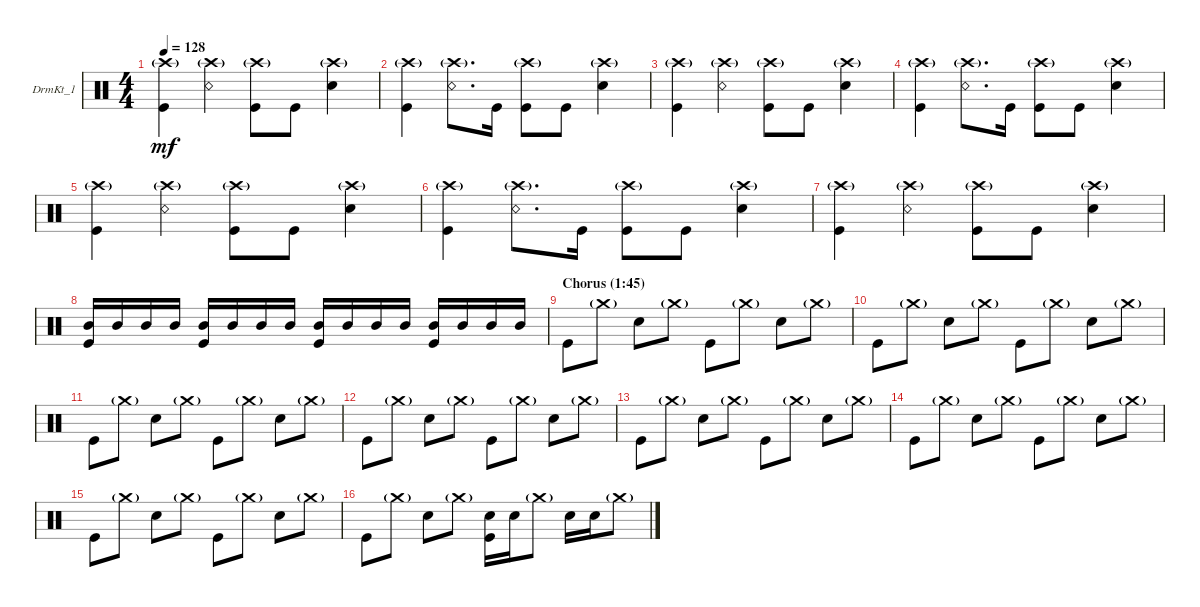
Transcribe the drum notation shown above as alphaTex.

\defaultSystemsLayout 4
\bracketExtendMode groupsimilarinstruments
\firstSystemTrackNameOrientation horizontal
\otherSystemsTrackNameOrientation horizontal
\track ("DrmKt_1" "DrmKt_1") {instrument percussion}
\staff {score}
\articulation defaults
\ts (4 4)
\tempo 128
\clef neutral
\ks c
("Kick (hit)" "Crash high (hit)"{g}).4{dy mf} ("Snare (rim shot)" "Crash high (hit)"{g}).4 ("Kick (hit)" "Crash high (hit)"{g}).8 "Kick (hit)".8 ("Snare (hit) 2" "Crash high (hit)"{g}).4 |
("Kick (hit)" "Crash high (hit)"{g}).4 ("Snare (rim shot)" "Crash high (hit)"{g}).8{d} "Kick (hit)".16 ("Kick (hit)" "Crash high (hit)"{g}).8 "Kick (hit)".8 ("Snare (hit) 2" "Crash high (hit)"{g}).4 |
("Kick (hit)" "Crash high (hit)"{g}).4 ("Snare (rim shot)" "Crash high (hit)"{g}).4 ("Kick (hit)" "Crash high (hit)"{g}).8 "Kick (hit)".8 ("Snare (hit) 2" "Crash high (hit)"{g}).4 |
("Kick (hit)" "Crash high (hit)"{g}).4 ("Snare (rim shot)" "Crash high (hit)"{g}).8{d} "Kick (hit)".16 ("Kick (hit)" "Crash high (hit)"{g}).8 "Kick (hit)".8 ("Snare (hit) 2" "Crash high (hit)"{g}).4 |
("Kick (hit)" "Crash high (hit)"{g}).4 ("Snare (rim shot)" "Crash high (hit)"{g}).4 ("Kick (hit)" "Crash high (hit)"{g}).8 "Kick (hit)".8 ("Snare (hit) 2" "Crash high (hit)"{g}).4 |
("Kick (hit)" "Crash high (hit)"{g}).4 ("Snare (rim shot)" "Crash high (hit)"{g}).8{d} "Kick (hit)".16 ("Kick (hit)" "Crash high (hit)"{g}).8 "Kick (hit)".8 ("Snare (hit) 2" "Crash high (hit)"{g}).4 |
("Kick (hit)" "Crash high (hit)"{g}).4 ("Snare (rim shot)" "Crash high (hit)"{g}).4 ("Kick (hit)" "Crash high (hit)"{g}).8 "Kick (hit)".8 ("Snare (hit) 2" "Crash high (hit)"{g}).4 |
("Mid Tom (hit)" "Kick (hit)").16 "Mid Tom (hit)".16 "Mid Tom (hit)".16 "Mid Tom (hit)".16 ("Mid Tom (hit)" "Kick (hit)").16 "Mid Tom (hit)".16 "Mid Tom (hit)".16 "Mid Tom (hit)".16 ("Mid Tom (hit)" "Kick (hit)").16 "Mid Tom (hit)".16 "Mid Tom (hit)".16 "Mid Tom (hit)".16 ("Mid Tom (hit)" "Kick (hit)").16 "Mid Tom (hit)".16 "Mid Tom (hit)".16 "Mid Tom (hit)".16 |
\section ("" "Chorus (1:45)")
"Kick (hit)".8 "Crash medium (hit)"{g}.8 "Snare (hit) 2".8 "Crash medium (hit)"{g}.8 "Kick (hit)".8 "Crash medium (hit)"{g}.8 "Snare (hit) 2".8 "Crash medium (hit)"{g}.8 |
"Kick (hit)".8 "Crash medium (hit)"{g}.8 "Snare (hit) 2".8 "Crash medium (hit)"{g}.8 "Kick (hit)".8 "Crash medium (hit)"{g}.8 "Snare (hit) 2".8 "Crash medium (hit)"{g}.8 |
"Kick (hit)".8 "Crash medium (hit)"{g}.8 "Snare (hit) 2".8 "Crash medium (hit)"{g}.8 "Kick (hit)".8 "Crash medium (hit)"{g}.8 "Snare (hit) 2".8 "Crash medium (hit)"{g}.8 |
"Kick (hit)".8 "Crash medium (hit)"{g}.8 "Snare (hit) 2".8 "Crash medium (hit)"{g}.8 "Kick (hit)".8 "Crash medium (hit)"{g}.8 "Snare (hit) 2".8 "Crash medium (hit)"{g}.8 |
"Kick (hit)".8 "Crash medium (hit)"{g}.8 "Snare (hit) 2".8 "Crash medium (hit)"{g}.8 "Kick (hit)".8 "Crash medium (hit)"{g}.8 "Snare (hit) 2".8 "Crash medium (hit)"{g}.8 |
"Kick (hit)".8 "Crash medium (hit)"{g}.8 "Snare (hit) 2".8 "Crash medium (hit)"{g}.8 "Kick (hit)".8 "Crash medium (hit)"{g}.8 "Snare (hit) 2".8 "Crash medium (hit)"{g}.8 |
"Kick (hit)".8 "Crash medium (hit)"{g}.8 "Snare (hit) 2".8 "Crash medium (hit)"{g}.8 "Kick (hit)".8 "Crash medium (hit)"{g}.8 "Snare (hit) 2".8 "Crash medium (hit)"{g}.8 |
"Kick (hit)".8 "Crash medium (hit)"{g}.8 "Snare (hit) 2".8 "Crash medium (hit)"{g}.8 ("Kick (hit)" "Snare (hit) 2").16 "Snare (hit) 2".16 "Crash medium (hit)"{g}.8 "Snare (hit) 2".16 "Snare (hit) 2".16 "Crash medium (hit)"{g}.8
